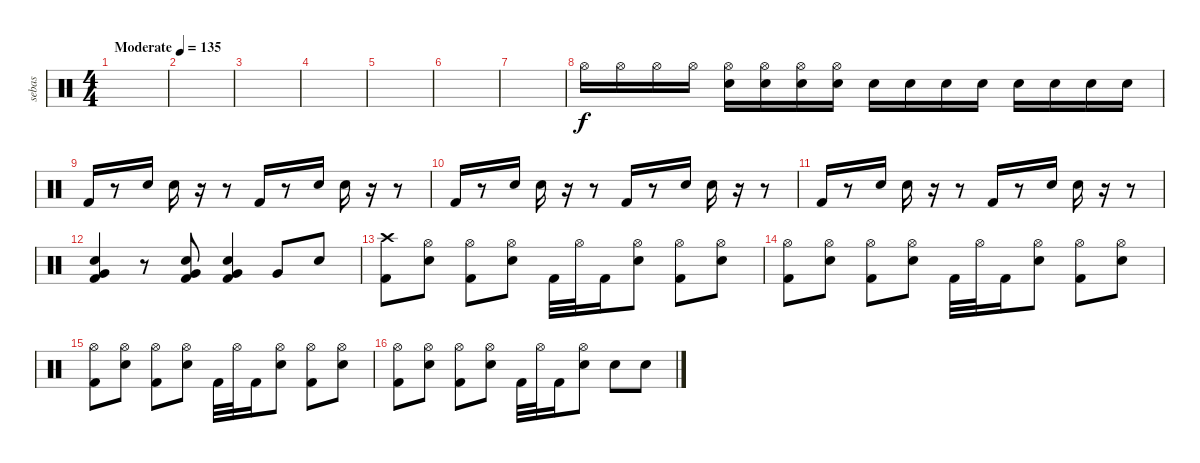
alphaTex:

\track ("sebas" "sebas") {instrument percussion}
\staff {score}
\articulation defaults
\ts (4 4)
\tempo (135 "Moderate")
\clef neutral
\ks c
|
|
|
|
|
|
|
"Hi-Hat (open)".16{volume 0} "Hi-Hat (open)".16{volume 14} "Hi-Hat (open)".16 "Hi-Hat (open)".16 ("Hi-Hat (open)" "Snare (hit) 2").16 ("Hi-Hat (open)" "Snare (hit) 2").16 ("Hi-Hat (open)" "Snare (hit) 2").16 ("Hi-Hat (open)" "Snare (hit) 2").16 "Snare (hit) 2".16 "Snare (hit) 2".16 "Snare (hit) 2".16 "Snare (hit) 2".16 "Snare (hit) 2".16 "Snare (hit) 2".16 "Snare (hit) 2".16 "Snare (hit) 2".16 |
"Kick (hit) 2".16 r.8 "Snare (hit) 2".16 "Snare (hit) 2".16 r.16 r.8 "Kick (hit) 2".16 r.8 "Snare (hit) 2".16 "Snare (hit) 2".16 r.16 r.8 |
"Kick (hit) 2".16 r.8 "Snare (hit) 2".16 "Snare (hit) 2".16 r.16 r.8 "Kick (hit) 2".16 r.8 "Snare (hit) 2".16 "Snare (hit) 2".16 r.16 r.8 |
"Kick (hit) 2".16 r.8 "Snare (hit) 2".16 "Snare (hit) 2".16 r.16 r.8 "Kick (hit) 2".16 r.8 "Snare (hit) 2".16 "Snare (hit) 2".16 r.16 r.8 |
("Snare (hit) 2" "Kick (hit) 2" "Very Low Tom (hit)").4 r.8 ("Snare (hit) 2" "Kick (hit) 2" "Very Low Tom (hit)").8 ("Snare (hit) 2" "Kick (hit) 2" "Very Low Tom (hit)").4 "Very Low Tom (hit)".8 "Snare (hit) 2".8 |
("Crash high (hit)" "Kick (hit) 2").8 ("Hi-Hat (open)" "Snare (hit) 2").8 ("Hi-Hat (open)" "Kick (hit) 2").8 ("Hi-Hat (open)" "Snare (hit) 2").8 "Kick (hit) 2".32 "Hi-Hat (open)".32 "Kick (hit) 2".16 ("Hi-Hat (open)" "Snare (hit) 2").8 ("Hi-Hat (open)" "Kick (hit) 2").8 ("Hi-Hat (open)" "Snare (hit) 2").8 |
("Hi-Hat (open)" "Kick (hit) 2").8 ("Hi-Hat (open)" "Snare (hit) 2").8 ("Hi-Hat (open)" "Kick (hit) 2").8 ("Hi-Hat (open)" "Snare (hit) 2").8 "Kick (hit) 2".32 "Hi-Hat (open)".32 "Kick (hit) 2".16 ("Hi-Hat (open)" "Snare (hit) 2").8 ("Hi-Hat (open)" "Kick (hit) 2").8 ("Hi-Hat (open)" "Snare (hit) 2").8 |
("Hi-Hat (open)" "Kick (hit) 2").8 ("Hi-Hat (open)" "Snare (hit) 2").8 ("Hi-Hat (open)" "Kick (hit) 2").8 ("Hi-Hat (open)" "Snare (hit) 2").8 "Kick (hit) 2".32 "Hi-Hat (open)".32 "Kick (hit) 2".16 ("Hi-Hat (open)" "Snare (hit) 2").8 ("Hi-Hat (open)" "Kick (hit) 2").8 ("Hi-Hat (open)" "Snare (hit) 2").8 |
("Hi-Hat (open)" "Kick (hit) 2").8 ("Hi-Hat (open)" "Snare (hit) 2").8 ("Hi-Hat (open)" "Kick (hit) 2").8 ("Hi-Hat (open)" "Snare (hit) 2").8 "Kick (hit) 2".32 "Hi-Hat (open)".32 "Kick (hit) 2".16 ("Hi-Hat (open)" "Snare (hit) 2").8 "Snare (hit) 2".8 "Snare (hit) 2".8
